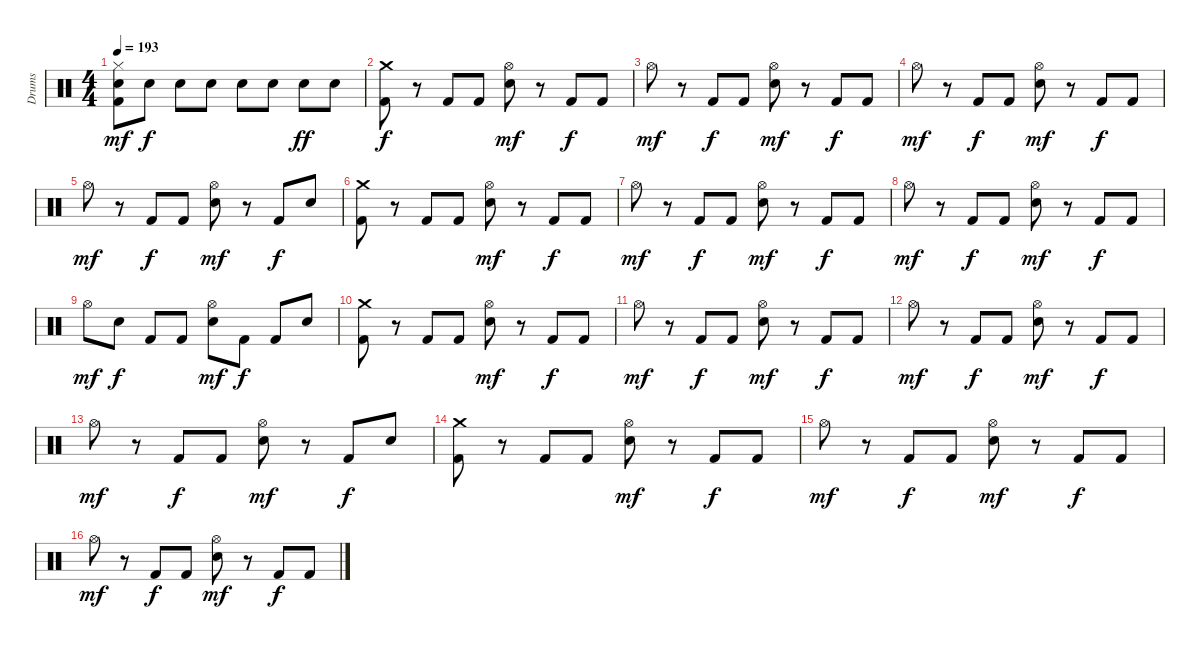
\track ("Drums" "Drums") {instrument percussion}
\staff {score}
\articulation defaults
\ts (4 4)
\tempo 193
\clef neutral
\ks c
("Hi-Hat (closed)" "Snare (hit) 2" "Kick (hit) 2").8{dy mf} "Snare (hit) 2".8{dy f} "Snare (hit) 2".8 "Snare (hit) 2".8 "Snare (hit) 2".8 "Snare (hit) 2".8 "Snare (hit) 2".8{dy ff} "Snare (hit) 2".8 |
("Crash medium (hit)" "Kick (hit) 2").8{dy f} r.8 "Kick (hit) 2".8 "Kick (hit) 2".8 ("Hi-Hat (open)" "Snare (hit) 2").8{dy mf} r.8 "Kick (hit) 2".8{dy f} "Kick (hit) 2".8 |
"Hi-Hat (open)".8{dy mf} r.8 "Kick (hit) 2".8{dy f} "Kick (hit) 2".8 ("Hi-Hat (open)" "Snare (hit) 2").8{dy mf} r.8 "Kick (hit) 2".8{dy f} "Kick (hit) 2".8 |
"Hi-Hat (open)".8{dy mf} r.8 "Kick (hit) 2".8{dy f} "Kick (hit) 2".8 ("Hi-Hat (open)" "Snare (hit) 2").8{dy mf} r.8 "Kick (hit) 2".8{dy f} "Kick (hit) 2".8 |
"Hi-Hat (open)".8{dy mf} r.8 "Kick (hit) 2".8{dy f} "Kick (hit) 2".8 ("Hi-Hat (open)" "Snare (hit) 2").8{dy mf} r.8 "Kick (hit) 2".8{dy f} "Snare (hit) 2".8 |
("Crash medium (hit)" "Kick (hit) 2").8 r.8 "Kick (hit) 2".8 "Kick (hit) 2".8 ("Hi-Hat (open)" "Snare (hit) 2").8{dy mf} r.8 "Kick (hit) 2".8{dy f} "Kick (hit) 2".8 |
"Hi-Hat (open)".8{dy mf} r.8 "Kick (hit) 2".8{dy f} "Kick (hit) 2".8 ("Hi-Hat (open)" "Snare (hit) 2").8{dy mf} r.8 "Kick (hit) 2".8{dy f} "Kick (hit) 2".8 |
"Hi-Hat (open)".8{dy mf} r.8 "Kick (hit) 2".8{dy f} "Kick (hit) 2".8 ("Hi-Hat (open)" "Snare (hit) 2").8{dy mf} r.8 "Kick (hit) 2".8{dy f} "Kick (hit) 2".8 |
"Hi-Hat (open)".8{dy mf} "Snare (hit) 2".8{dy f} "Kick (hit) 2".8 "Kick (hit) 2".8 ("Hi-Hat (open)" "Snare (hit) 2").8{dy mf} "Kick (hit) 2".8{dy f} "Kick (hit) 2".8 "Snare (hit) 2".8 |
("Crash medium (hit)" "Kick (hit) 2").8 r.8 "Kick (hit) 2".8 "Kick (hit) 2".8 ("Hi-Hat (open)" "Snare (hit) 2").8{dy mf} r.8 "Kick (hit) 2".8{dy f} "Kick (hit) 2".8 |
"Hi-Hat (open)".8{dy mf} r.8 "Kick (hit) 2".8{dy f} "Kick (hit) 2".8 ("Hi-Hat (open)" "Snare (hit) 2").8{dy mf} r.8 "Kick (hit) 2".8{dy f} "Kick (hit) 2".8 |
"Hi-Hat (open)".8{dy mf} r.8 "Kick (hit) 2".8{dy f} "Kick (hit) 2".8 ("Hi-Hat (open)" "Snare (hit) 2").8{dy mf} r.8 "Kick (hit) 2".8{dy f} "Kick (hit) 2".8 |
"Hi-Hat (open)".8{dy mf} r.8 "Kick (hit) 2".8{dy f} "Kick (hit) 2".8 ("Hi-Hat (open)" "Snare (hit) 2").8{dy mf} r.8 "Kick (hit) 2".8{dy f} "Snare (hit) 2".8 |
("Crash medium (hit)" "Kick (hit) 2").8 r.8 "Kick (hit) 2".8 "Kick (hit) 2".8 ("Hi-Hat (open)" "Snare (hit) 2").8{dy mf} r.8 "Kick (hit) 2".8{dy f} "Kick (hit) 2".8 |
"Hi-Hat (open)".8{dy mf} r.8 "Kick (hit) 2".8{dy f} "Kick (hit) 2".8 ("Hi-Hat (open)" "Snare (hit) 2").8{dy mf} r.8 "Kick (hit) 2".8{dy f} "Kick (hit) 2".8 |
"Hi-Hat (open)".8{dy mf} r.8 "Kick (hit) 2".8{dy f} "Kick (hit) 2".8 ("Hi-Hat (open)" "Snare (hit) 2").8{dy mf} r.8 "Kick (hit) 2".8{dy f} "Kick (hit) 2".8
